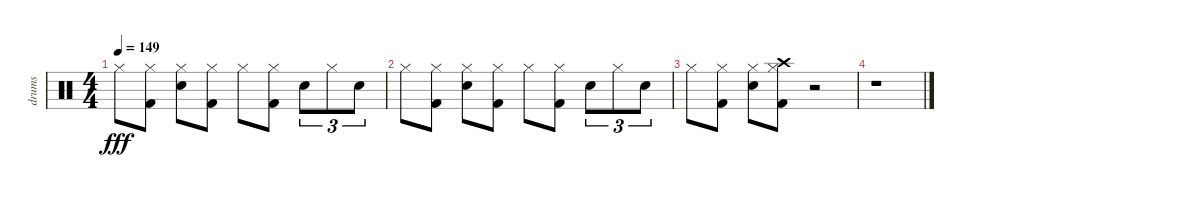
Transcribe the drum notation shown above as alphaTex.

\track ("drums" "drums") {instrument percussion}
\staff {score}
\articulation defaults
\ts (4 4)
\tempo 149
\clef neutral
\ks c "Hi-Hat (closed)".8{dy fff}
("Hi-Hat (closed)" "Kick (hit) 2").8 ("Hi-Hat (closed)" "Snare (hit) 2").8 ("Hi-Hat (closed)" "Kick (hit) 2").8 "Hi-Hat (closed)".8 ("Hi-Hat (closed)" "Kick (hit) 2").8 "Snare (hit) 2".8{tu (3 2)} "Hi-Hat (closed)".8{tu (3 2)} "Snare (hit) 2".8{tu (3 2)} |
"Hi-Hat (closed)".8 ("Hi-Hat (closed)" "Kick (hit) 2").8 ("Hi-Hat (closed)" "Snare (hit) 2").8 ("Hi-Hat (closed)" "Kick (hit) 2").8 "Hi-Hat (closed)".8 ("Hi-Hat (closed)" "Kick (hit) 2").8 "Snare (hit) 2".8{tu (3 2)} "Hi-Hat (closed)".8{tu (3 2)} "Snare (hit) 2".8{tu (3 2)} |
"Hi-Hat (closed)".8 ("Hi-Hat (closed)" "Kick (hit) 2").8 ("Hi-Hat (closed)" "Snare (hit) 2").8 ("Crash high (hit)" "Hi-Hat (closed)" "Kick (hit) 2").8 r.2 |
r.1
